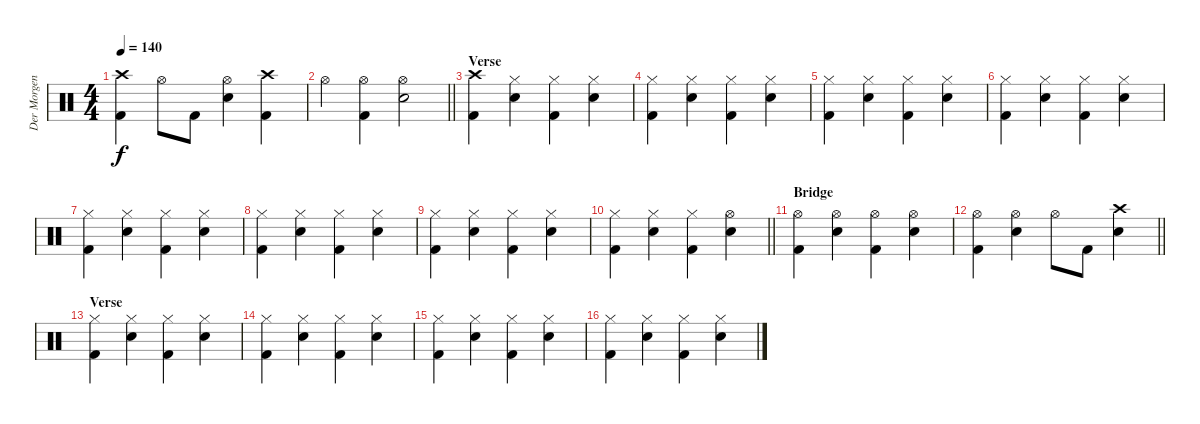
\track ("Der Morgenstern" "Der Morgen") {instrument percussion}
\staff {score}
\articulation defaults
\ts (4 4)
\tempo 140
\clef neutral
\ks c
("Crash high (hit)" "Kick (hit) 2").4{dy f} "Hi-Hat (open)".8 "Kick (hit) 2".8 ("Hi-Hat (open)" "Snare (hit) 2").4 ("Crash high (hit)" "Kick (hit) 2").4 |
\barLineRight lightlight "Hi-Hat (open)".4
("Hi-Hat (open)" "Kick (hit) 2").4 ("Hi-Hat (open)" "Snare (hit) 2").2 |
\section ("" "Verse")
("Crash high (hit)" "Kick (hit) 2").4 ("Hi-Hat (closed)" "Snare (hit) 2").4 ("Hi-Hat (closed)" "Kick (hit) 2").4 ("Hi-Hat (closed)" "Snare (hit) 2").4 |
("Hi-Hat (closed)" "Kick (hit) 2").4 ("Hi-Hat (closed)" "Snare (hit) 2").4 ("Hi-Hat (closed)" "Kick (hit) 2").4 ("Hi-Hat (closed)" "Snare (hit) 2").4 |
("Hi-Hat (closed)" "Kick (hit) 2").4 ("Hi-Hat (closed)" "Snare (hit) 2").4 ("Hi-Hat (closed)" "Kick (hit) 2").4 ("Hi-Hat (closed)" "Snare (hit) 2").4 |
("Hi-Hat (closed)" "Kick (hit) 2").4 ("Hi-Hat (closed)" "Snare (hit) 2").4 ("Hi-Hat (closed)" "Kick (hit) 2").4 ("Hi-Hat (closed)" "Snare (hit) 2").4 |
("Hi-Hat (closed)" "Kick (hit) 2").4 ("Hi-Hat (closed)" "Snare (hit) 2").4 ("Hi-Hat (closed)" "Kick (hit) 2").4 ("Hi-Hat (closed)" "Snare (hit) 2").4 |
("Hi-Hat (closed)" "Kick (hit) 2").4 ("Hi-Hat (closed)" "Snare (hit) 2").4 ("Hi-Hat (closed)" "Kick (hit) 2").4 ("Hi-Hat (closed)" "Snare (hit) 2").4 |
("Hi-Hat (closed)" "Kick (hit) 2").4 ("Hi-Hat (closed)" "Snare (hit) 2").4 ("Hi-Hat (closed)" "Kick (hit) 2").4 ("Hi-Hat (closed)" "Snare (hit) 2").4 |
\barLineRight lightlight
("Hi-Hat (closed)" "Kick (hit) 2").4 ("Hi-Hat (closed)" "Snare (hit) 2").4 ("Hi-Hat (closed)" "Kick (hit) 2").4 ("Hi-Hat (open)" "Snare (hit) 2").4 |
\section ("" "Bridge")
("Hi-Hat (open)" "Kick (hit) 2").4 ("Hi-Hat (open)" "Snare (hit) 2").4 ("Hi-Hat (open)" "Kick (hit) 2").4 ("Hi-Hat (open)" "Snare (hit) 2").4 |
\barLineRight lightlight
("Hi-Hat (open)" "Kick (hit) 2").4 ("Hi-Hat (open)" "Snare (hit) 2").4 "Hi-Hat (open)".8 "Kick (hit) 2".8 ("Crash high (hit)" "Snare (hit) 2").4 |
\section ("" "Verse")
("Hi-Hat (closed)" "Kick (hit) 2").4 ("Hi-Hat (closed)" "Snare (hit) 2").4 ("Hi-Hat (closed)" "Kick (hit) 2").4 ("Hi-Hat (closed)" "Snare (hit) 2").4 |
("Hi-Hat (closed)" "Kick (hit) 2").4 ("Hi-Hat (closed)" "Snare (hit) 2").4 ("Hi-Hat (closed)" "Kick (hit) 2").4 ("Hi-Hat (closed)" "Snare (hit) 2").4 |
("Hi-Hat (closed)" "Kick (hit) 2").4 ("Hi-Hat (closed)" "Snare (hit) 2").4 ("Hi-Hat (closed)" "Kick (hit) 2").4 ("Hi-Hat (closed)" "Snare (hit) 2").4 |
("Hi-Hat (closed)" "Kick (hit) 2").4 ("Hi-Hat (closed)" "Snare (hit) 2").4 ("Hi-Hat (closed)" "Kick (hit) 2").4 ("Hi-Hat (closed)" "Snare (hit) 2").4
